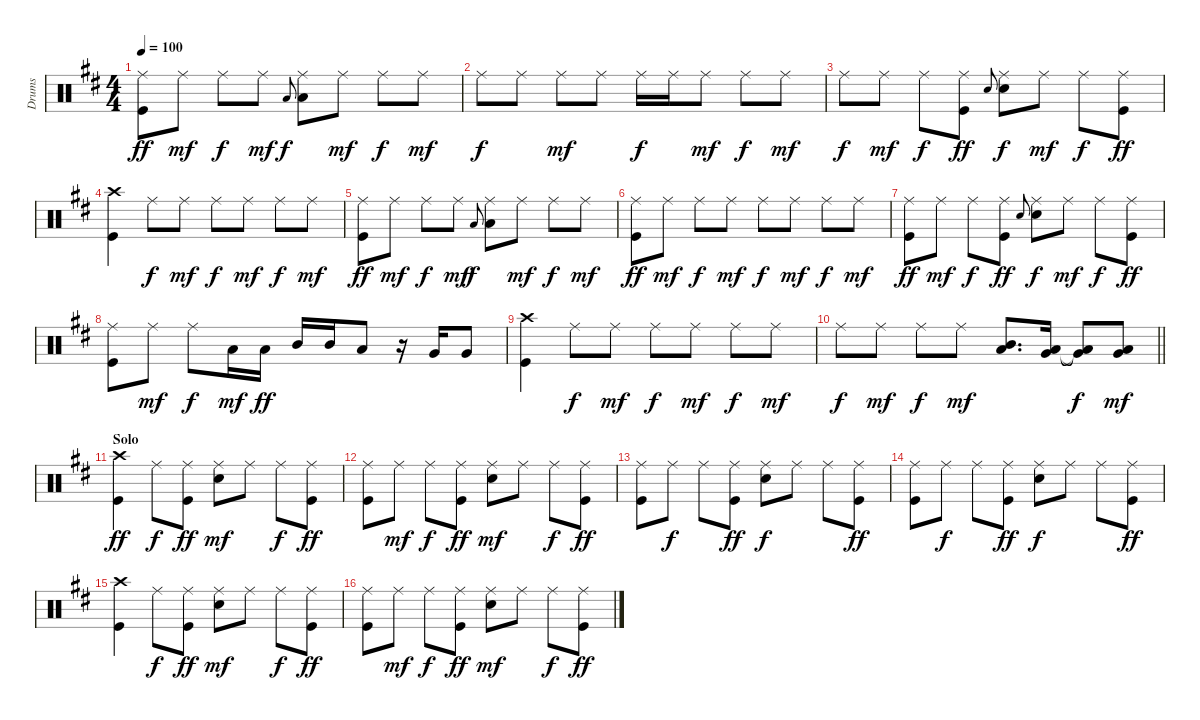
\track ("Drums" "Drums") {instrument percussion}
\staff {score}
\articulation defaults
\ts (4 4)
\tempo 100
\clef neutral
\ks d
("Ride (middle)" "Kick (hit)").8{dy ff} "Ride (middle)".8{dy mf} "Ride (middle)".8{dy f} "Ride (middle)".8{dy mf} "Low Floor Tom (hit)".8{gr onbeat dy f} ("Ride (middle)" "Low Floor Tom (hit)").8 "Ride (middle)".8{dy mf} "Ride (middle)".8{dy f} "Ride (middle)".8{dy mf} |
"Ride (middle)".8{dy f} "Ride (middle)".8 "Ride (middle)".8{dy mf} "Ride (middle)".8 "Ride (middle)".16{dy f} "Ride (middle)".16 "Ride (middle)".8{dy mf} "Ride (middle)".8{dy f} "Ride (middle)".8{dy mf} |
"Ride (middle)".8{dy f} "Ride (middle)".8{dy mf} "Ride (middle)".8{dy f} ("Ride (middle)" "Kick (hit)").8{dy ff} "Electric Snare (hit)".8{gr onbeat} ("Ride (middle)" "Electric Snare (hit)").8{dy f} "Ride (middle)".8{dy mf} "Ride (middle)".8{dy f} ("Ride (middle)" "Kick (hit)").8{dy ff} |
("Crash high (hit)" "Kick (hit)").4 "Ride (middle)".8{dy f} "Ride (middle)".8{dy mf} "Ride (middle)".8{dy f} "Ride (middle)".8{dy mf} "Ride (middle)".8{dy f} "Ride (middle)".8{dy mf} |
("Ride (middle)" "Kick (hit)").8{dy ff} "Ride (middle)".8{dy mf} "Ride (middle)".8{dy f} "Ride (middle)".8{dy mf} "Low Floor Tom (hit)".8{gr onbeat dy f} ("Ride (middle)" "Low Floor Tom (hit)").8 "Ride (middle)".8{dy mf} "Ride (middle)".8{dy f} "Ride (middle)".8{dy mf} |
("Ride (middle)" "Kick (hit)").8{dy ff} "Ride (middle)".8{dy mf} "Ride (middle)".8{dy f} "Ride (middle)".8{dy mf} "Ride (middle)".8{dy f} "Ride (middle)".8{dy mf} "Ride (middle)".8{dy f} "Ride (middle)".8{dy mf} |
("Ride (middle)" "Kick (hit)").8{dy ff} "Ride (middle)".8{dy mf} "Ride (middle)".8{dy f} ("Ride (middle)" "Kick (hit)").8{dy ff} "Electric Snare (hit)".8{gr onbeat} ("Ride (middle)" "Electric Snare (hit)").8{dy f} "Ride (middle)".8{dy mf} "Ride (middle)".8{dy f} ("Ride (middle)" "Kick (hit)").8{dy ff} |
("Ride (middle)" "Kick (hit)").8 "Ride (middle)".8{dy mf} "Ride (middle)".8{dy f} "Low Tom (hit)".16{dy mf} "Low Tom (hit)".16{dy ff} "Mid Tom (hit)".16 "Mid Tom (hit)".16 "Low Tom (hit)".8 r.16 "Very Low Tom (hit)".16 "Very Low Tom (hit)".8 |
("Crash high (hit)" "Kick (hit)").4 "Ride (middle)".8{dy f} "Ride (middle)".8{dy mf} "Ride (middle)".8{dy f} "Ride (middle)".8{dy mf} "Ride (middle)".8{dy f} "Ride (middle)".8{dy mf} |
\barLineRight lightlight "Ride (middle)".8{dy f} "Ride (middle)".8{dy mf} "Ride (middle)".8{dy f} "Ride (middle)".8{dy mf}
("Mid Tom (hit)" "Low Tom (hit)").8{d} ("Low Tom (hit)" "Very Low Tom (hit)").16 ("Very Low Tom (hit)"{t} "Low Floor Tom (hit)"{t}).8{dy f} ("Very Low Tom (hit)" "Low Floor Tom (hit)").8{dy mf} |
\section ("" "Solo")
("Crash high (hit)" "Kick (hit)").4{dy ff} "Ride (middle)".8{dy f} ("Ride (middle)" "Kick (hit)").8{dy ff} ("Ride (middle)" "Electric Snare (hit)").8{dy mf} "Ride (middle)".8 "Ride (middle)".8{dy f} ("Ride (middle)" "Kick (hit)").8{dy ff} |
("Ride (middle)" "Kick (hit)").8 "Ride (middle)".8{dy mf} "Ride (middle)".8{dy f} ("Ride (middle)" "Kick (hit)").8{dy ff} ("Ride (middle)" "Electric Snare (hit)").8{dy mf} "Ride (middle)".8 "Ride (middle)".8{dy f} ("Ride (middle)" "Kick (hit)").8{dy ff} |
("Ride (middle)" "Kick (hit)").8 "Ride (middle)".8{dy f} "Ride (middle)".8 ("Ride (middle)" "Kick (hit)").8{dy ff} ("Ride (middle)" "Electric Snare (hit)").8{dy f} "Ride (middle)".8 "Ride (middle)".8 ("Ride (middle)" "Kick (hit)").8{dy ff} |
("Ride (middle)" "Kick (hit)").8 "Ride (middle)".8{dy f} "Ride (middle)".8 ("Ride (middle)" "Kick (hit)").8{dy ff} ("Ride (middle)" "Electric Snare (hit)").8{dy f} "Ride (middle)".8 "Ride (middle)".8 ("Ride (middle)" "Kick (hit)").8{dy ff} |
("Crash high (hit)" "Kick (hit)").4 "Ride (middle)".8{dy f} ("Ride (middle)" "Kick (hit)").8{dy ff} ("Ride (middle)" "Electric Snare (hit)").8{dy mf} "Ride (middle)".8 "Ride (middle)".8{dy f} ("Ride (middle)" "Kick (hit)").8{dy ff} |
("Ride (middle)" "Kick (hit)").8 "Ride (middle)".8{dy mf} "Ride (middle)".8{dy f} ("Ride (middle)" "Kick (hit)").8{dy ff} ("Ride (middle)" "Electric Snare (hit)").8{dy mf} "Ride (middle)".8 "Ride (middle)".8{dy f} ("Ride (middle)" "Kick (hit)").8{dy ff}
